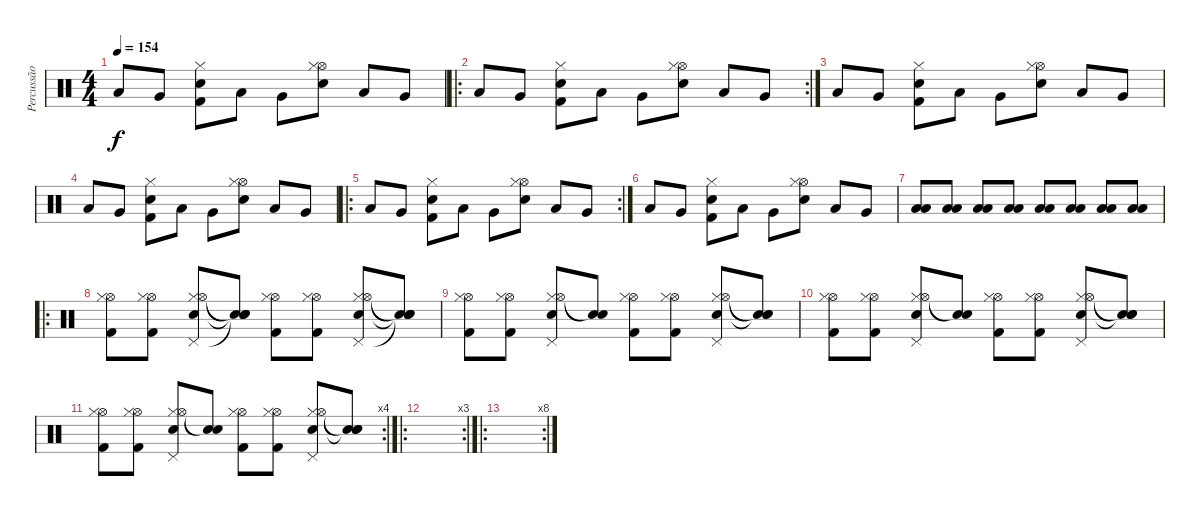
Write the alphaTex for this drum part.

\track ("Percussão" "Percussão") {instrument percussion}
\staff {score}
\articulation defaults
\ts (4 4)
\tempo 154
\clef neutral
\ks c "Low Floor Tom (hit)".8{dy f} "Very Low Tom (hit)".8
("Snare (hit) 2" "Kick (hit) 2" "Hi-Hat (closed)").8 "Low Floor Tom (hit)".8 "Very Low Tom (hit)".8 ("Snare (hit) 2" "Hi-Hat (open)" "Hi-Hat (closed)").8 "Low Floor Tom (hit)".8 "Very Low Tom (hit)".8 |
\ro
\rc 2 "Low Floor Tom (hit)".8 "Very Low Tom (hit)".8
("Snare (hit) 2" "Kick (hit) 2" "Hi-Hat (closed)").8 "Low Floor Tom (hit)".8 "Very Low Tom (hit)".8 ("Snare (hit) 2" "Hi-Hat (open)" "Hi-Hat (closed)").8 "Low Floor Tom (hit)".8 "Very Low Tom (hit)".8 |
"Low Floor Tom (hit)".8 "Very Low Tom (hit)".8 ("Snare (hit) 2" "Kick (hit) 2" "Hi-Hat (closed)").8 "Low Floor Tom (hit)".8 "Very Low Tom (hit)".8 ("Snare (hit) 2" "Hi-Hat (open)" "Hi-Hat (closed)").8 "Low Floor Tom (hit)".8 "Very Low Tom (hit)".8 |
"Low Floor Tom (hit)".8 "Very Low Tom (hit)".8 ("Snare (hit) 2" "Kick (hit) 2" "Hi-Hat (closed)").8 "Low Floor Tom (hit)".8 "Very Low Tom (hit)".8 ("Snare (hit) 2" "Hi-Hat (open)" "Hi-Hat (closed)").8 "Low Floor Tom (hit)".8 "Very Low Tom (hit)".8 |
\ro
\rc 2 "Low Floor Tom (hit)".8 "Very Low Tom (hit)".8
("Snare (hit) 2" "Kick (hit) 2" "Hi-Hat (closed)").8 "Low Floor Tom (hit)".8 "Very Low Tom (hit)".8 ("Snare (hit) 2" "Hi-Hat (open)" "Hi-Hat (closed)").8 "Low Floor Tom (hit)".8 "Very Low Tom (hit)".8 |
"Low Floor Tom (hit)".8 "Very Low Tom (hit)".8 ("Snare (hit) 2" "Kick (hit) 2" "Hi-Hat (closed)").8 "Low Floor Tom (hit)".8 "Very Low Tom (hit)".8 ("Snare (hit) 2" "Hi-Hat (open)" "Hi-Hat (closed)").8 "Low Floor Tom (hit)".8 "Very Low Tom (hit)".8 |
("Low Floor Tom (hit)" "Low Tom (hit)").8 ("Low Floor Tom (hit)" "Low Tom (hit)").8 ("Low Floor Tom (hit)" "Low Tom (hit)").8 ("Low Floor Tom (hit)" "Low Tom (hit)").8 ("Low Floor Tom (hit)" "Low Tom (hit)").8 ("Low Floor Tom (hit)" "Low Tom (hit)").8 ("Low Floor Tom (hit)" "Low Tom (hit)").8 ("Low Tom (hit)" "Low Floor Tom (hit)").8 |
\ro
("Hi-Hat (open)" "Kick (hit) 2" "Hi-Hat (closed)").8 ("Hi-Hat (open)" "Kick (hit) 2" "Hi-Hat (closed)").8 ("Hi-Hat (closed)" "Hi-Hat (open)" "Snare (hit) 2" "Pedal Hi-Hat (hit)").8 ("Snare (hit)"{t} "Snare (hit)"{t} "Snare (hit)"{t} "Snare (hit)"{t}).8 ("Hi-Hat (open)" "Kick (hit) 2" "Hi-Hat (closed)").8 ("Hi-Hat (open)" "Kick (hit) 2" "Hi-Hat (closed)").8 ("Hi-Hat (closed)" "Hi-Hat (open)" "Snare (hit) 2" "Pedal Hi-Hat (hit)").8 ("Snare (hit)"{t} "Snare (hit)"{t} "Snare (hit)"{t} "Snare (hit)"{t}).8 |
("Hi-Hat (open)" "Kick (hit) 2" "Hi-Hat (closed)").8 ("Hi-Hat (open)" "Kick (hit) 2" "Hi-Hat (closed)").8 ("Hi-Hat (closed)" "Hi-Hat (open)" "Snare (hit) 2" "Pedal Hi-Hat (hit)").8 ("Snare (hit)"{t} "Snare (hit)"{t}).8 ("Hi-Hat (open)" "Kick (hit) 2" "Hi-Hat (closed)").8 ("Hi-Hat (open)" "Kick (hit) 2" "Hi-Hat (closed)").8 ("Hi-Hat (closed)" "Hi-Hat (open)" "Snare (hit) 2" "Pedal Hi-Hat (hit)").8 ("Snare (hit)"{t} "Snare (hit)"{t} "Snare (hit)"{t}).8 |
("Hi-Hat (open)" "Kick (hit) 2" "Hi-Hat (closed)").8 ("Hi-Hat (open)" "Kick (hit) 2" "Hi-Hat (closed)").8 ("Hi-Hat (closed)" "Hi-Hat (open)" "Snare (hit) 2" "Pedal Hi-Hat (hit)").8 ("Snare (hit)"{t} "Snare (hit)"{t}).8 ("Hi-Hat (open)" "Kick (hit) 2" "Hi-Hat (closed)").8 ("Hi-Hat (open)" "Kick (hit) 2" "Hi-Hat (closed)").8 ("Hi-Hat (closed)" "Hi-Hat (open)" "Snare (hit) 2" "Pedal Hi-Hat (hit)").8 ("Snare (hit)"{t} "Snare (hit)"{t} "Snare (hit)"{t}).8 |
\rc 4
("Hi-Hat (open)" "Kick (hit) 2" "Hi-Hat (closed)").8 ("Hi-Hat (open)" "Kick (hit) 2" "Hi-Hat (closed)").8 ("Hi-Hat (closed)" "Hi-Hat (open)" "Snare (hit) 2" "Pedal Hi-Hat (hit)").8 ("Snare (hit)"{t} "Snare (hit)"{t}).8 ("Hi-Hat (open)" "Kick (hit) 2" "Hi-Hat (closed)").8 ("Hi-Hat (open)" "Kick (hit) 2" "Hi-Hat (closed)").8 ("Hi-Hat (closed)" "Hi-Hat (open)" "Snare (hit) 2" "Pedal Hi-Hat (hit)").8 ("Snare (hit)"{t} "Snare (hit)"{t} "Snare (hit)"{t}).8 |
\ro
\rc 3
|
\ro
\rc 8
